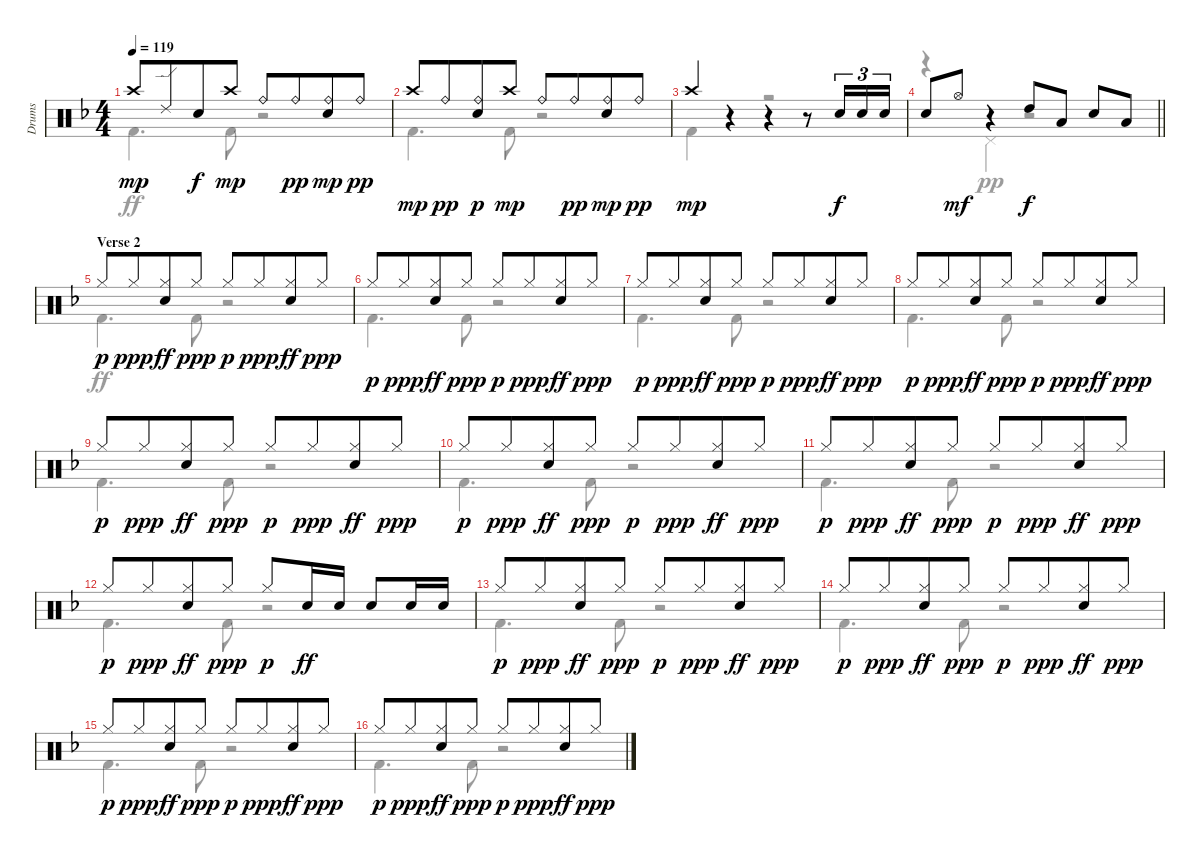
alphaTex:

\track ("Drums" "Drums") {instrument percussion}
\staff {score}
\articulation defaults
\voice
\ts (4 4)
\tempo 119
\clef neutral
\ks f "Crash high (hit)".8{dy mp} "Ride (edge) 2".8{beam merge} "Electric Snare (hit)".8{dy f} "Crash high (hit)".8{dy mp} "Ride (bell)".8 "Ride (bell)".8{dy pp beam merge}
("Ride (bell)" "Electric Snare (hit)").8{dy mp} "Ride (bell)".8{dy pp} |
"Crash high (hit)".8{dy mp} "Ride (bell)".8{dy pp beam merge} ("Electric Snare (hit)" "Ride (bell)").8{dy p} "Crash high (hit)".8{dy mp} "Ride (bell)".8 "Ride (bell)".8{dy pp beam merge} ("Ride (bell)" "Electric Snare (hit)").8{dy mp} "Ride (bell)".8{dy pp} |
"Crash high (hit)".4{dy mp} r.4 r.4 r.8 "Electric Snare (hit)".16{tu (3 2) dy f} "Electric Snare (hit)".16{tu (3 2)} "Electric Snare (hit)".16{tu (3 2)} |
\barLineRight lightlight "Electric Snare (hit)".8 "Hi-Hat (open)".8{dy mf}
r.4 "High Tom (hit)".8{dy f} "Low Tom (hit)".8{beam split} "Electric Snare (hit)".8 "Low Tom (hit)".8 |
\section ("" "Verse 2")
"Hi-Hat (closed)".8{dy p} "Hi-Hat (closed)".8{dy ppp beam merge} ("Hi-Hat (closed)" "Electric Snare (hit)").8{dy ff} "Hi-Hat (closed)".8{dy ppp} "Hi-Hat (closed)".8{dy p} "Hi-Hat (closed)".8{dy ppp beam merge} ("Hi-Hat (closed)" "Electric Snare (hit)").8{dy ff} "Hi-Hat (closed)".8{dy ppp} |
"Hi-Hat (closed)".8{dy p} "Hi-Hat (closed)".8{dy ppp beam merge} ("Hi-Hat (closed)" "Electric Snare (hit)").8{dy ff} "Hi-Hat (closed)".8{dy ppp} "Hi-Hat (closed)".8{dy p} "Hi-Hat (closed)".8{dy ppp beam merge} ("Hi-Hat (closed)" "Electric Snare (hit)").8{dy ff} "Hi-Hat (closed)".8{dy ppp} |
"Hi-Hat (closed)".8{dy p} "Hi-Hat (closed)".8{dy ppp beam merge} ("Hi-Hat (closed)" "Electric Snare (hit)").8{dy ff} "Hi-Hat (closed)".8{dy ppp} "Hi-Hat (closed)".8{dy p} "Hi-Hat (closed)".8{dy ppp beam merge} ("Hi-Hat (closed)" "Electric Snare (hit)").8{dy ff} "Hi-Hat (closed)".8{dy ppp} |
"Hi-Hat (closed)".8{dy p} "Hi-Hat (closed)".8{dy ppp beam merge} ("Hi-Hat (closed)" "Electric Snare (hit)").8{dy ff} "Hi-Hat (closed)".8{dy ppp} "Hi-Hat (closed)".8{dy p} "Hi-Hat (closed)".8{dy ppp beam merge} ("Hi-Hat (closed)" "Electric Snare (hit)").8{dy ff} "Hi-Hat (closed)".8{dy ppp} |
"Hi-Hat (closed)".8{dy p} "Hi-Hat (closed)".8{dy ppp beam merge} ("Hi-Hat (closed)" "Electric Snare (hit)").8{dy ff} "Hi-Hat (closed)".8{dy ppp} "Hi-Hat (closed)".8{dy p} "Hi-Hat (closed)".8{dy ppp beam merge} ("Hi-Hat (closed)" "Electric Snare (hit)").8{dy ff} "Hi-Hat (closed)".8{dy ppp} |
"Hi-Hat (closed)".8{dy p} "Hi-Hat (closed)".8{dy ppp beam merge} ("Hi-Hat (closed)" "Electric Snare (hit)").8{dy ff} "Hi-Hat (closed)".8{dy ppp} "Hi-Hat (closed)".8{dy p} "Hi-Hat (closed)".8{dy ppp beam merge} ("Hi-Hat (closed)" "Electric Snare (hit)").8{dy ff} "Hi-Hat (closed)".8{dy ppp} |
"Hi-Hat (closed)".8{dy p} "Hi-Hat (closed)".8{dy ppp beam merge} ("Hi-Hat (closed)" "Electric Snare (hit)").8{dy ff} "Hi-Hat (closed)".8{dy ppp} "Hi-Hat (closed)".8{dy p} "Hi-Hat (closed)".8{dy ppp beam merge} ("Hi-Hat (closed)" "Electric Snare (hit)").8{dy ff} "Hi-Hat (closed)".8{dy ppp} |
"Hi-Hat (closed)".8{dy p} "Hi-Hat (closed)".8{dy ppp beam merge} ("Hi-Hat (closed)" "Electric Snare (hit)").8{dy ff} "Hi-Hat (closed)".8{dy ppp} "Hi-Hat (closed)".8{dy p} "Electric Snare (hit)".16{dy ff} "Electric Snare (hit)".16 "Electric Snare (hit)".8 "Electric Snare (hit)".16 "Electric Snare (hit)".16 |
"Hi-Hat (closed)".8{dy p} "Hi-Hat (closed)".8{dy ppp beam merge} ("Hi-Hat (closed)" "Electric Snare (hit)").8{dy ff} "Hi-Hat (closed)".8{dy ppp} "Hi-Hat (closed)".8{dy p} "Hi-Hat (closed)".8{dy ppp beam merge} ("Hi-Hat (closed)" "Electric Snare (hit)").8{dy ff} "Hi-Hat (closed)".8{dy ppp} |
"Hi-Hat (closed)".8{dy p} "Hi-Hat (closed)".8{dy ppp beam merge} ("Hi-Hat (closed)" "Electric Snare (hit)").8{dy ff} "Hi-Hat (closed)".8{dy ppp} "Hi-Hat (closed)".8{dy p} "Hi-Hat (closed)".8{dy ppp beam merge} ("Hi-Hat (closed)" "Electric Snare (hit)").8{dy ff} "Hi-Hat (closed)".8{dy ppp} |
"Hi-Hat (closed)".8{dy p} "Hi-Hat (closed)".8{dy ppp beam merge} ("Hi-Hat (closed)" "Electric Snare (hit)").8{dy ff} "Hi-Hat (closed)".8{dy ppp} "Hi-Hat (closed)".8{dy p} "Hi-Hat (closed)".8{dy ppp beam merge} ("Hi-Hat (closed)" "Electric Snare (hit)").8{dy ff} "Hi-Hat (closed)".8{dy ppp} |
"Hi-Hat (closed)".8{dy p} "Hi-Hat (closed)".8{dy ppp beam merge} ("Hi-Hat (closed)" "Electric Snare (hit)").8{dy ff} "Hi-Hat (closed)".8{dy ppp} "Hi-Hat (closed)".8{dy p} "Hi-Hat (closed)".8{dy ppp beam merge} ("Hi-Hat (closed)" "Electric Snare (hit)").8{dy ff} "Hi-Hat (closed)".8{dy ppp}
\voice
\clef neutral
\ottava regular
\simile none
\ks f "Kick (hit) 2".4{d dy ff} "Kick (hit) 2".8
r.2 |
"Kick (hit) 2".4{d} "Kick (hit) 2".8 r.2 |
"Kick (hit) 2".4 r.4 r.2 |
\barLineRight lightlight
r.4 "Pedal Hi-Hat (hit)".4{dy pp} r.2 |
"Kick (hit) 2".4{d dy ff} "Kick (hit) 2".8 r.2 |
"Kick (hit) 2".4{d} "Kick (hit) 2".8 r.2 |
"Kick (hit) 2".4{d} "Kick (hit) 2".8 r.2 |
"Kick (hit) 2".4{d} "Kick (hit) 2".8 r.2 |
"Kick (hit) 2".4{d} "Kick (hit) 2".8 r.2 |
"Kick (hit) 2".4{d} "Kick (hit) 2".8 r.2 |
"Kick (hit) 2".4{d} "Kick (hit) 2".8 r.2 |
"Kick (hit) 2".4{d} "Kick (hit) 2".8 r.2 |
"Kick (hit) 2".4{d} "Kick (hit) 2".8 r.2 |
"Kick (hit) 2".4{d} "Kick (hit) 2".8 r.2 |
"Kick (hit) 2".4{d} "Kick (hit) 2".8 r.2 |
"Kick (hit) 2".4{d} "Kick (hit) 2".8 r.2
